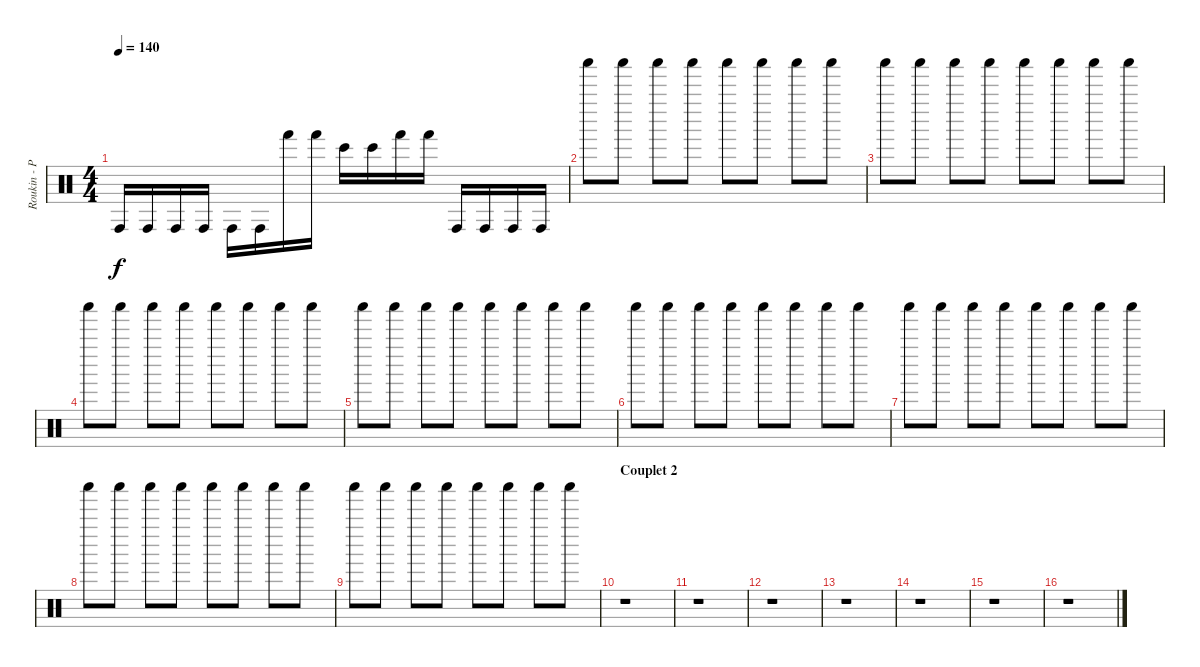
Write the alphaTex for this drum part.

\track ("Roukin - Percus" "Roukin - P") {instrument percussion}
\staff {score}
\articulation defaults
\ts (4 4)
\tempo 140
\clef neutral
\ks c "Conga high (hit)".16{dy f} "Conga high (hit)".16 "Conga high (hit)".16 "Conga high (hit)".16 "Conga high (hit)".16 "Conga high (hit)".16 "Hand (hit)".16 "Hand (hit)".16 "Bongo High (hit)".16 "Bongo High (hit)".16 "Hand (hit)".16 "Hand (hit)".16 "Conga high (hit)".16 "Conga high (hit)".16 "Conga high (hit)".16 "Conga high (hit)".16
|
"Shaker (hit)".8 "Shaker (hit)".8 "Shaker (hit)".8 "Shaker (hit)".8 "Shaker (hit)".8 "Shaker (hit)".8 "Shaker (hit)".8 "Shaker (hit)".8 |
"Shaker (hit)".8 "Shaker (hit)".8 "Shaker (hit)".8 "Shaker (hit)".8 "Shaker (hit)".8 "Shaker (hit)".8 "Shaker (hit)".8 "Shaker (hit)".8 |
"Shaker (hit)".8 "Shaker (hit)".8 "Shaker (hit)".8 "Shaker (hit)".8 "Shaker (hit)".8 "Shaker (hit)".8 "Shaker (hit)".8 "Shaker (hit)".8 |
"Shaker (hit)".8 "Shaker (hit)".8 "Shaker (hit)".8 "Shaker (hit)".8 "Shaker (hit)".8 "Shaker (hit)".8 "Shaker (hit)".8 "Shaker (hit)".8 |
"Shaker (hit)".8 "Shaker (hit)".8 "Shaker (hit)".8 "Shaker (hit)".8 "Shaker (hit)".8 "Shaker (hit)".8 "Shaker (hit)".8 "Shaker (hit)".8 |
"Shaker (hit)".8 "Shaker (hit)".8 "Shaker (hit)".8 "Shaker (hit)".8 "Shaker (hit)".8 "Shaker (hit)".8 "Shaker (hit)".8 "Shaker (hit)".8 |
"Shaker (hit)".8 "Shaker (hit)".8 "Shaker (hit)".8 "Shaker (hit)".8 "Shaker (hit)".8 "Shaker (hit)".8 "Shaker (hit)".8 "Shaker (hit)".8 |
"Shaker (hit)".8 "Shaker (hit)".8 "Shaker (hit)".8 "Shaker (hit)".8 "Shaker (hit)".8 "Shaker (hit)".8 "Shaker (hit)".8 "Shaker (hit)".8 |
\section ("" "Couplet 2")
r.1 |
r.1 |
r.1 |
r.1 |
r.1 |
r.1 |
r.1
